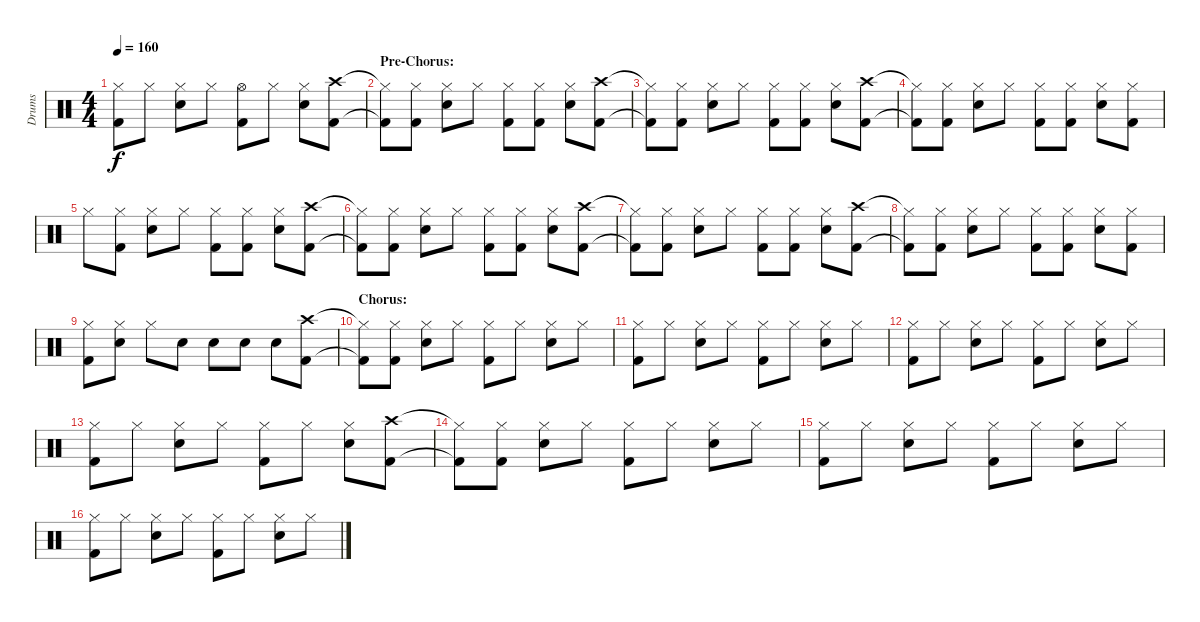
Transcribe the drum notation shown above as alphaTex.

\track ("Drums" "Drums") {instrument percussion}
\staff {score}
\articulation defaults
\ts (4 4)
\tempo 160
\clef neutral
\ks c
("Hi-Hat (closed)" "Kick (hit) 2").8{dy f} "Hi-Hat (closed)".8 ("Hi-Hat (closed)" "Electric Snare (hit)").8 "Hi-Hat (closed)".8 ("Hi-Hat (open)" "Kick (hit) 2").8 "Hi-Hat (closed)".8 ("Hi-Hat (closed)" "Electric Snare (hit)").8 ("Crash high (hit)" "Kick (hit) 2").8 |
\section ("" "Pre-Chorus:")
("Hi-Hat (closed)"{t} "Kick (hit) 2"{t}).8 ("Hi-Hat (closed)" "Kick (hit) 2").8 ("Hi-Hat (closed)" "Electric Snare (hit)").8 "Hi-Hat (closed)".8 ("Hi-Hat (closed)" "Kick (hit) 2").8 ("Hi-Hat (closed)" "Kick (hit) 2").8 ("Hi-Hat (closed)" "Electric Snare (hit)").8 ("Crash high (hit)" "Kick (hit) 2").8 |
("Hi-Hat (closed)"{t} "Kick (hit) 2"{t}).8 ("Hi-Hat (closed)" "Kick (hit) 2").8 ("Hi-Hat (closed)" "Electric Snare (hit)").8 "Hi-Hat (closed)".8 ("Hi-Hat (closed)" "Kick (hit) 2").8 ("Hi-Hat (closed)" "Kick (hit) 2").8 ("Hi-Hat (closed)" "Electric Snare (hit)").8 ("Crash high (hit)" "Kick (hit) 2").8 |
("Hi-Hat (closed)"{t} "Kick (hit) 2"{t}).8 ("Hi-Hat (closed)" "Kick (hit) 2").8 ("Hi-Hat (closed)" "Electric Snare (hit)").8 "Hi-Hat (closed)".8 ("Hi-Hat (closed)" "Kick (hit) 2").8 ("Hi-Hat (closed)" "Kick (hit) 2").8 ("Hi-Hat (closed)" "Electric Snare (hit)").8 ("Hi-Hat (closed)" "Kick (hit) 2").8 |
"Hi-Hat (closed)".8 ("Hi-Hat (closed)" "Kick (hit) 2").8 ("Hi-Hat (closed)" "Electric Snare (hit)").8 "Hi-Hat (closed)".8 ("Hi-Hat (closed)" "Kick (hit) 2").8 ("Hi-Hat (closed)" "Kick (hit) 2").8 ("Hi-Hat (closed)" "Electric Snare (hit)").8 ("Crash high (hit)" "Kick (hit) 2").8 |
("Hi-Hat (closed)"{t} "Kick (hit) 2"{t}).8 ("Hi-Hat (closed)" "Kick (hit) 2").8 ("Hi-Hat (closed)" "Electric Snare (hit)").8 "Hi-Hat (closed)".8 ("Hi-Hat (closed)" "Kick (hit) 2").8 ("Hi-Hat (closed)" "Kick (hit) 2").8 ("Hi-Hat (closed)" "Electric Snare (hit)").8 ("Crash high (hit)" "Kick (hit) 2").8 |
("Hi-Hat (closed)"{t} "Kick (hit) 2"{t}).8 ("Hi-Hat (closed)" "Kick (hit) 2").8 ("Hi-Hat (closed)" "Electric Snare (hit)").8 "Hi-Hat (closed)".8 ("Hi-Hat (closed)" "Kick (hit) 2").8 ("Hi-Hat (closed)" "Kick (hit) 2").8 ("Hi-Hat (closed)" "Electric Snare (hit)").8 ("Crash high (hit)" "Kick (hit) 2").8 |
("Hi-Hat (closed)"{t} "Kick (hit) 2"{t}).8 ("Hi-Hat (closed)" "Kick (hit) 2").8 ("Hi-Hat (closed)" "Electric Snare (hit)").8 "Hi-Hat (closed)".8 ("Hi-Hat (closed)" "Kick (hit) 2").8 ("Hi-Hat (closed)" "Kick (hit) 2").8 ("Hi-Hat (closed)" "Electric Snare (hit)").8 ("Hi-Hat (closed)" "Kick (hit) 2").8 |
("Hi-Hat (closed)" "Kick (hit) 2").8 ("Hi-Hat (closed)" "Electric Snare (hit)").8 "Hi-Hat (closed)".8 "Electric Snare (hit)".8 "Electric Snare (hit)".8 "Electric Snare (hit)".8 "Electric Snare (hit)".8 ("Crash high (hit)" "Kick (hit) 2").8 |
\section ("" "Chorus:")
("Hi-Hat (closed)"{t} "Kick (hit) 2"{t}).8 ("Hi-Hat (closed)" "Kick (hit) 2").8 ("Hi-Hat (closed)" "Electric Snare (hit)").8 "Hi-Hat (closed)".8 ("Hi-Hat (closed)" "Kick (hit) 2").8 "Hi-Hat (closed)".8 ("Hi-Hat (closed)" "Electric Snare (hit)").8 "Hi-Hat (closed)".8 |
("Hi-Hat (closed)" "Kick (hit) 2").8 "Hi-Hat (closed)".8 ("Hi-Hat (closed)" "Electric Snare (hit)").8 "Hi-Hat (closed)".8 ("Hi-Hat (closed)" "Kick (hit) 2").8 "Hi-Hat (closed)".8 ("Hi-Hat (closed)" "Electric Snare (hit)").8 "Hi-Hat (closed)".8 |
("Hi-Hat (closed)" "Kick (hit) 2").8 "Hi-Hat (closed)".8 ("Hi-Hat (closed)" "Electric Snare (hit)").8 "Hi-Hat (closed)".8 ("Hi-Hat (closed)" "Kick (hit) 2").8 "Hi-Hat (closed)".8 ("Hi-Hat (closed)" "Electric Snare (hit)").8 "Hi-Hat (closed)".8 |
("Hi-Hat (closed)" "Kick (hit) 2").8 "Hi-Hat (closed)".8 ("Hi-Hat (closed)" "Electric Snare (hit)").8 "Hi-Hat (closed)".8 ("Hi-Hat (closed)" "Kick (hit) 2").8 "Hi-Hat (closed)".8 ("Hi-Hat (closed)" "Electric Snare (hit)").8 ("Crash high (hit)" "Kick (hit) 2").8 |
("Hi-Hat (closed)"{t} "Kick (hit) 2"{t}).8 ("Hi-Hat (closed)" "Kick (hit) 2").8 ("Hi-Hat (closed)" "Electric Snare (hit)").8 "Hi-Hat (closed)".8 ("Hi-Hat (closed)" "Kick (hit) 2").8 "Hi-Hat (closed)".8 ("Hi-Hat (closed)" "Electric Snare (hit)").8 "Hi-Hat (closed)".8 |
("Hi-Hat (closed)" "Kick (hit) 2").8 "Hi-Hat (closed)".8 ("Hi-Hat (closed)" "Electric Snare (hit)").8 "Hi-Hat (closed)".8 ("Hi-Hat (closed)" "Kick (hit) 2").8 "Hi-Hat (closed)".8 ("Hi-Hat (closed)" "Electric Snare (hit)").8 "Hi-Hat (closed)".8 |
("Hi-Hat (closed)" "Kick (hit) 2").8 "Hi-Hat (closed)".8 ("Hi-Hat (closed)" "Electric Snare (hit)").8 "Hi-Hat (closed)".8 ("Hi-Hat (closed)" "Kick (hit) 2").8 "Hi-Hat (closed)".8 ("Hi-Hat (closed)" "Electric Snare (hit)").8 "Hi-Hat (closed)".8
